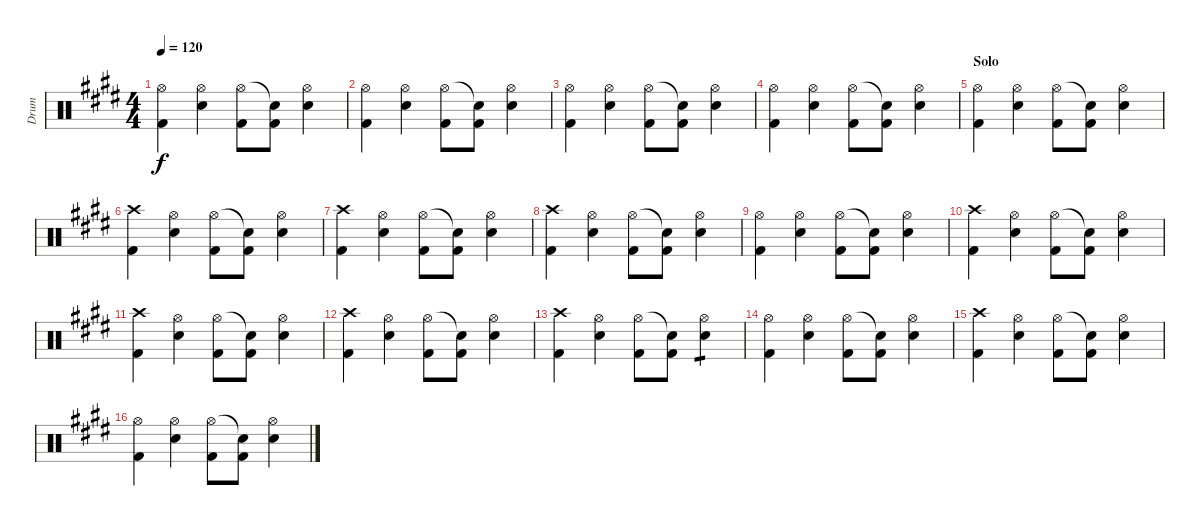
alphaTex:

\track ("Drum" "Drum") {instrument percussion}
\staff {score}
\articulation defaults
\ts (4 4)
\tempo 120
\clef neutral
\ks e
("Hi-Hat (open)" "Kick (hit) 2").4{dy f} ("Hi-Hat (open)" "Electric Snare (hit)").4 ("Hi-Hat (open)" "Kick (hit) 2").8 ("Snare (hit)"{t} "Kick (hit) 2").8 ("Hi-Hat (open)" "Electric Snare (hit)").4 |
("Hi-Hat (open)" "Kick (hit) 2").4 ("Hi-Hat (open)" "Electric Snare (hit)").4 ("Hi-Hat (open)" "Kick (hit) 2").8 ("Snare (hit)"{t} "Kick (hit) 2").8 ("Hi-Hat (open)" "Electric Snare (hit)").4 |
("Hi-Hat (open)" "Kick (hit) 2").4 ("Hi-Hat (open)" "Electric Snare (hit)").4 ("Hi-Hat (open)" "Kick (hit) 2").8 ("Snare (hit)"{t} "Kick (hit) 2").8 ("Hi-Hat (open)" "Electric Snare (hit)").4 |
("Hi-Hat (open)" "Kick (hit) 2").4 ("Hi-Hat (open)" "Electric Snare (hit)").4 ("Hi-Hat (open)" "Kick (hit) 2").8 ("Snare (hit)"{t} "Kick (hit) 2").8 ("Hi-Hat (open)" "Electric Snare (hit)").4 |
\section ("" "Solo")
("Hi-Hat (open)" "Kick (hit) 2").4 ("Hi-Hat (open)" "Electric Snare (hit)").4 ("Hi-Hat (open)" "Kick (hit) 2").8 ("Snare (hit)"{t} "Kick (hit) 2").8 ("Hi-Hat (open)" "Electric Snare (hit)").4 |
("Crash high (hit)" "Kick (hit) 2").4 ("Hi-Hat (open)" "Electric Snare (hit)").4 ("Hi-Hat (open)" "Kick (hit) 2").8 ("Snare (hit)"{t} "Kick (hit) 2").8 ("Hi-Hat (open)" "Electric Snare (hit)").4 |
("Crash high (hit)" "Kick (hit) 2").4 ("Hi-Hat (open)" "Electric Snare (hit)").4 ("Hi-Hat (open)" "Kick (hit) 2").8 ("Snare (hit)"{t} "Kick (hit) 2").8 ("Hi-Hat (open)" "Electric Snare (hit)").4 |
("Crash high (hit)" "Kick (hit) 2").4 ("Hi-Hat (open)" "Electric Snare (hit)").4 ("Hi-Hat (open)" "Kick (hit) 2").8 ("Snare (hit)"{t} "Kick (hit) 2").8 ("Hi-Hat (open)" "Electric Snare (hit)").4 |
("Hi-Hat (open)" "Kick (hit) 2").4 ("Hi-Hat (open)" "Electric Snare (hit)").4 ("Hi-Hat (open)" "Kick (hit) 2").8 ("Snare (hit)"{t} "Kick (hit) 2").8 ("Hi-Hat (open)" "Electric Snare (hit)").4 |
("Crash high (hit)" "Kick (hit) 2").4 ("Hi-Hat (open)" "Electric Snare (hit)").4 ("Hi-Hat (open)" "Kick (hit) 2").8 ("Snare (hit)"{t} "Kick (hit) 2").8 ("Hi-Hat (open)" "Electric Snare (hit)").4 |
("Crash high (hit)" "Kick (hit) 2").4 ("Hi-Hat (open)" "Electric Snare (hit)").4 ("Hi-Hat (open)" "Kick (hit) 2").8 ("Snare (hit)"{t} "Kick (hit) 2").8 ("Hi-Hat (open)" "Electric Snare (hit)").4 |
("Crash high (hit)" "Kick (hit) 2").4 ("Hi-Hat (open)" "Electric Snare (hit)").4 ("Hi-Hat (open)" "Kick (hit) 2").8 ("Snare (hit)"{t} "Kick (hit) 2").8 ("Hi-Hat (open)" "Electric Snare (hit)").4 |
("Crash high (hit)" "Kick (hit) 2").4 ("Hi-Hat (open)" "Electric Snare (hit)").4 ("Hi-Hat (open)" "Kick (hit) 2").8 ("Snare (hit)"{t} "Kick (hit) 2").8 ("Hi-Hat (open)" "Electric Snare (hit)").4{tp 1} |
("Hi-Hat (open)" "Kick (hit) 2").4 ("Hi-Hat (open)" "Electric Snare (hit)").4 ("Hi-Hat (open)" "Kick (hit) 2").8 ("Snare (hit)"{t} "Kick (hit) 2").8 ("Hi-Hat (open)" "Electric Snare (hit)").4 |
("Crash high (hit)" "Kick (hit) 2").4 ("Hi-Hat (open)" "Electric Snare (hit)").4 ("Hi-Hat (open)" "Kick (hit) 2").8 ("Snare (hit)"{t} "Kick (hit) 2").8 ("Hi-Hat (open)" "Electric Snare (hit)").4 |
("Hi-Hat (open)" "Kick (hit) 2").4 ("Hi-Hat (open)" "Electric Snare (hit)").4 ("Hi-Hat (open)" "Kick (hit) 2").8 ("Snare (hit)"{t} "Kick (hit) 2").8 ("Hi-Hat (open)" "Electric Snare (hit)").4
